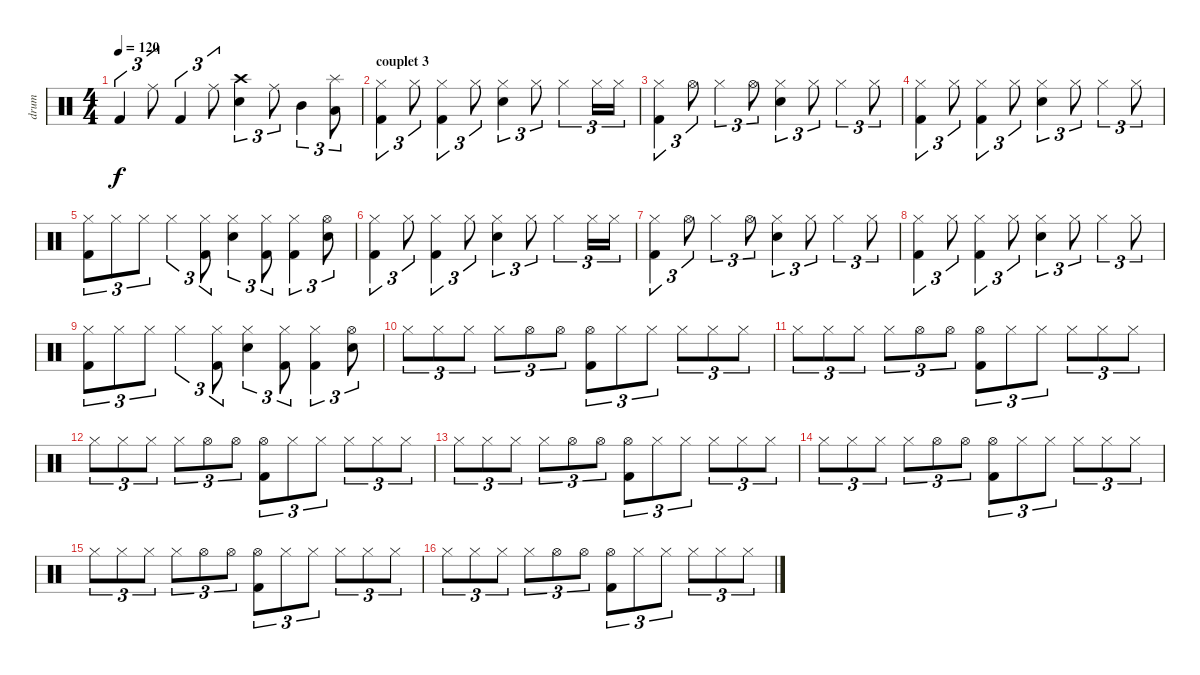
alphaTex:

\track ("drum" "drum") {instrument percussion}
\staff {score}
\articulation defaults
\ts (4 4)
\tempo 120
\clef neutral
\ks c "Kick (hit) 2".4{tu (3 2) dy f} "Ride (middle)".8{tu (3 2)} "Kick (hit) 2".4{tu (3 2)} "Ride (middle)".8{tu (3 2)}
("Crash high (hit)" "Electric Snare (hit)").4{tu (3 2)} "Ride (middle)".8{tu (3 2)} "Mid Tom (hit)".4{tu (3 2)} ("Splash (hit)" "Low Tom (hit)").8{tu (3 2)} |
\section ("" "couplet 3")
("Hi-Hat (closed)" "Kick (hit) 2").4{tu (3 2)} "Hi-Hat (closed)".8{tu (3 2)} ("Hi-Hat (closed)" "Kick (hit) 2").4{tu (3 2)} "Hi-Hat (closed)".8{tu (3 2)} ("Hi-Hat (closed)" "Electric Snare (hit)").4{tu (3 2)} "Hi-Hat (closed)".8{tu (3 2)} "Hi-Hat (closed)".4{tu (3 2)} "Hi-Hat (closed)".16{tu (3 2)} "Hi-Hat (closed)".16{tu (3 2)} |
("Hi-Hat (closed)" "Kick (hit) 2").4{tu (3 2)} "Hi-Hat (open)".8{tu (3 2)} "Hi-Hat (closed)".4{tu (3 2)} "Hi-Hat (open)".8{tu (3 2)} ("Hi-Hat (closed)" "Electric Snare (hit)").4{tu (3 2)} "Hi-Hat (closed)".8{tu (3 2)} "Hi-Hat (closed)".4{tu (3 2)} "Hi-Hat (closed)".8{tu (3 2)} |
("Hi-Hat (closed)" "Kick (hit) 2").4{tu (3 2)} "Hi-Hat (closed)".8{tu (3 2)} ("Hi-Hat (closed)" "Kick (hit) 2").4{tu (3 2)} "Hi-Hat (closed)".8{tu (3 2)} ("Hi-Hat (closed)" "Electric Snare (hit)").4{tu (3 2)} "Hi-Hat (closed)".8{tu (3 2)} "Hi-Hat (closed)".4{tu (3 2)} "Hi-Hat (closed)".8{tu (3 2)} |
("Hi-Hat (closed)" "Kick (hit) 2").8{tu (3 2)} "Hi-Hat (closed)".8{tu (3 2)} "Hi-Hat (closed)".8{tu (3 2)} "Hi-Hat (closed)".4{tu (3 2)} ("Hi-Hat (closed)" "Kick (hit) 2").8{tu (3 2)} ("Hi-Hat (closed)" "Electric Snare (hit)").4{tu (3 2)} ("Hi-Hat (closed)" "Kick (hit) 2").8{tu (3 2)} ("Hi-Hat (closed)" "Kick (hit) 2").4{tu (3 2)} ("Hi-Hat (open)" "Electric Snare (hit)").8{tu (3 2)} |
("Hi-Hat (closed)" "Kick (hit) 2").4{tu (3 2)} "Hi-Hat (closed)".8{tu (3 2)} ("Hi-Hat (closed)" "Kick (hit) 2").4{tu (3 2)} "Hi-Hat (closed)".8{tu (3 2)} ("Hi-Hat (closed)" "Electric Snare (hit)").4{tu (3 2)} "Hi-Hat (closed)".8{tu (3 2)} "Hi-Hat (closed)".4{tu (3 2)} "Hi-Hat (closed)".16{tu (3 2)} "Hi-Hat (closed)".16{tu (3 2)} |
("Hi-Hat (closed)" "Kick (hit) 2").4{tu (3 2)} "Hi-Hat (open)".8{tu (3 2)} "Hi-Hat (closed)".4{tu (3 2)} "Hi-Hat (open)".8{tu (3 2)} ("Hi-Hat (closed)" "Electric Snare (hit)").4{tu (3 2)} "Hi-Hat (closed)".8{tu (3 2)} "Hi-Hat (closed)".4{tu (3 2)} "Hi-Hat (closed)".8{tu (3 2)} |
("Hi-Hat (closed)" "Kick (hit) 2").4{tu (3 2)} "Hi-Hat (closed)".8{tu (3 2)} ("Hi-Hat (closed)" "Kick (hit) 2").4{tu (3 2)} "Hi-Hat (closed)".8{tu (3 2)} ("Hi-Hat (closed)" "Electric Snare (hit)").4{tu (3 2)} "Hi-Hat (closed)".8{tu (3 2)} "Hi-Hat (closed)".4{tu (3 2)} "Hi-Hat (closed)".8{tu (3 2)} |
("Hi-Hat (closed)" "Kick (hit) 2").8{tu (3 2)} "Hi-Hat (closed)".8{tu (3 2)} "Hi-Hat (closed)".8{tu (3 2)} "Hi-Hat (closed)".4{tu (3 2)} ("Hi-Hat (closed)" "Kick (hit) 2").8{tu (3 2)} ("Hi-Hat (closed)" "Electric Snare (hit)").4{tu (3 2)} ("Hi-Hat (closed)" "Kick (hit) 2").8{tu (3 2)} ("Hi-Hat (closed)" "Kick (hit) 2").4{tu (3 2)} ("Hi-Hat (open)" "Electric Snare (hit)").8{tu (3 2)} |
"Hi-Hat (closed)".8{tu (3 2)} "Hi-Hat (closed)".8{tu (3 2)} "Hi-Hat (closed)".8{tu (3 2)} "Hi-Hat (closed)".8{tu (3 2)} "Hi-Hat (open)".8{tu (3 2)} "Hi-Hat (open)".8{tu (3 2)} ("Hi-Hat (open)" "Kick (hit) 2").8{tu (3 2)} "Hi-Hat (closed)".8{tu (3 2)} "Hi-Hat (closed)".8{tu (3 2)} "Hi-Hat (closed)".8{tu (3 2)} "Hi-Hat (closed)".8{tu (3 2)} "Hi-Hat (closed)".8{tu (3 2)} |
"Hi-Hat (closed)".8{tu (3 2)} "Hi-Hat (closed)".8{tu (3 2)} "Hi-Hat (closed)".8{tu (3 2)} "Hi-Hat (closed)".8{tu (3 2)} "Hi-Hat (open)".8{tu (3 2)} "Hi-Hat (open)".8{tu (3 2)} ("Hi-Hat (open)" "Kick (hit) 2").8{tu (3 2)} "Hi-Hat (closed)".8{tu (3 2)} "Hi-Hat (closed)".8{tu (3 2)} "Hi-Hat (closed)".8{tu (3 2)} "Hi-Hat (closed)".8{tu (3 2)} "Hi-Hat (closed)".8{tu (3 2)} |
"Hi-Hat (closed)".8{tu (3 2)} "Hi-Hat (closed)".8{tu (3 2)} "Hi-Hat (closed)".8{tu (3 2)} "Hi-Hat (closed)".8{tu (3 2)} "Hi-Hat (open)".8{tu (3 2)} "Hi-Hat (open)".8{tu (3 2)} ("Hi-Hat (open)" "Kick (hit) 2").8{tu (3 2)} "Hi-Hat (closed)".8{tu (3 2)} "Hi-Hat (closed)".8{tu (3 2)} "Hi-Hat (closed)".8{tu (3 2)} "Hi-Hat (closed)".8{tu (3 2)} "Hi-Hat (closed)".8{tu (3 2)} |
"Hi-Hat (closed)".8{tu (3 2)} "Hi-Hat (closed)".8{tu (3 2)} "Hi-Hat (closed)".8{tu (3 2)} "Hi-Hat (closed)".8{tu (3 2)} "Hi-Hat (open)".8{tu (3 2)} "Hi-Hat (open)".8{tu (3 2)} ("Hi-Hat (open)" "Kick (hit) 2").8{tu (3 2)} "Hi-Hat (closed)".8{tu (3 2)} "Hi-Hat (closed)".8{tu (3 2)} "Hi-Hat (closed)".8{tu (3 2)} "Hi-Hat (closed)".8{tu (3 2)} "Hi-Hat (closed)".8{tu (3 2)} |
"Hi-Hat (closed)".8{tu (3 2)} "Hi-Hat (closed)".8{tu (3 2)} "Hi-Hat (closed)".8{tu (3 2)} "Hi-Hat (closed)".8{tu (3 2)} "Hi-Hat (open)".8{tu (3 2)} "Hi-Hat (open)".8{tu (3 2)} ("Hi-Hat (open)" "Kick (hit) 2").8{tu (3 2)} "Hi-Hat (closed)".8{tu (3 2)} "Hi-Hat (closed)".8{tu (3 2)} "Hi-Hat (closed)".8{tu (3 2)} "Hi-Hat (closed)".8{tu (3 2)} "Hi-Hat (closed)".8{tu (3 2)} |
"Hi-Hat (closed)".8{tu (3 2)} "Hi-Hat (closed)".8{tu (3 2)} "Hi-Hat (closed)".8{tu (3 2)} "Hi-Hat (closed)".8{tu (3 2)} "Hi-Hat (open)".8{tu (3 2)} "Hi-Hat (open)".8{tu (3 2)} ("Hi-Hat (open)" "Kick (hit) 2").8{tu (3 2)} "Hi-Hat (closed)".8{tu (3 2)} "Hi-Hat (closed)".8{tu (3 2)} "Hi-Hat (closed)".8{tu (3 2)} "Hi-Hat (closed)".8{tu (3 2)} "Hi-Hat (closed)".8{tu (3 2)} |
"Hi-Hat (closed)".8{tu (3 2)} "Hi-Hat (closed)".8{tu (3 2)} "Hi-Hat (closed)".8{tu (3 2)} "Hi-Hat (closed)".8{tu (3 2)} "Hi-Hat (open)".8{tu (3 2)} "Hi-Hat (open)".8{tu (3 2)} ("Hi-Hat (open)" "Kick (hit) 2").8{tu (3 2)} "Hi-Hat (closed)".8{tu (3 2)} "Hi-Hat (closed)".8{tu (3 2)} "Hi-Hat (closed)".8{tu (3 2)} "Hi-Hat (closed)".8{tu (3 2)} "Hi-Hat (closed)".8{tu (3 2)}
